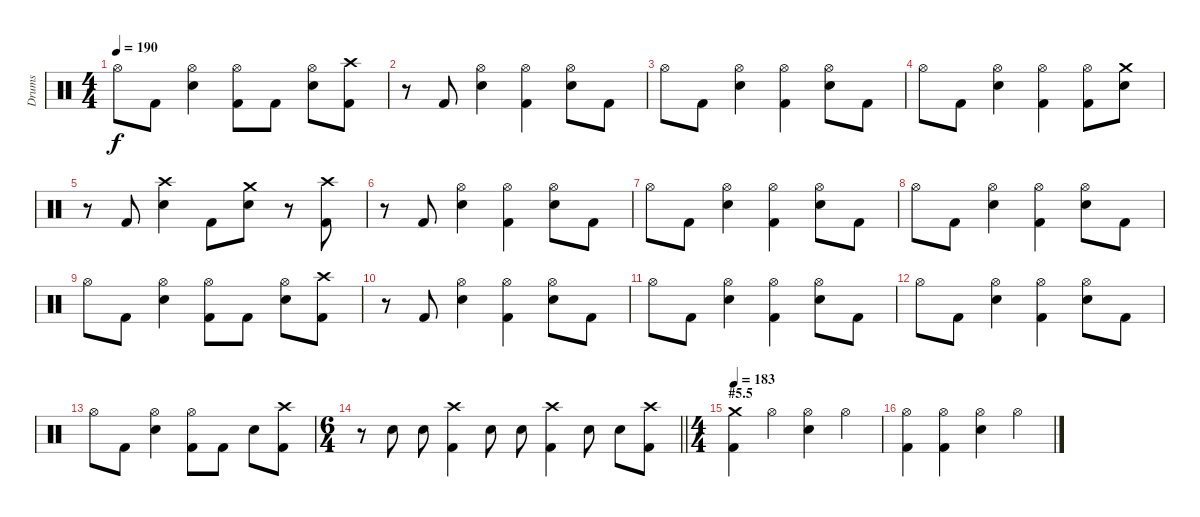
\track ("Drums" "Drums") {instrument percussion}
\staff {score}
\articulation defaults
\ts (4 4)
\tempo 190
\clef neutral
\ks c "Hi-Hat (open)".8{dy f} "Kick (hit) 2".8
("Hi-Hat (open)" "Electric Snare (hit)").4 ("Hi-Hat (open)" "Kick (hit) 2").8 "Kick (hit) 2".8 ("Hi-Hat (open)" "Electric Snare (hit)").8 ("Crash high (hit)" "Kick (hit) 2").8 |
r.8 "Kick (hit) 2".8 ("Hi-Hat (open)" "Electric Snare (hit)").4 ("Hi-Hat (open)" "Kick (hit) 2").4 ("Hi-Hat (open)" "Electric Snare (hit)").8 "Kick (hit) 2".8 |
"Hi-Hat (open)".8 "Kick (hit) 2".8 ("Hi-Hat (open)" "Electric Snare (hit)").4 ("Hi-Hat (open)" "Kick (hit) 2").4 ("Hi-Hat (open)" "Electric Snare (hit)").8 "Kick (hit) 2".8 |
"Hi-Hat (open)".8 "Kick (hit) 2".8 ("Hi-Hat (open)" "Electric Snare (hit)").4 ("Hi-Hat (open)" "Kick (hit) 2").4 ("Hi-Hat (open)" "Kick (hit) 2").8 ("Crash medium (hit)" "Electric Snare (hit)").8 |
r.8 "Kick (hit) 2".8 ("Crash high (hit)" "Electric Snare (hit)").4 "Kick (hit) 2".8 ("Crash medium (hit)" "Electric Snare (hit)").8 r.8 ("Crash high (hit)" "Kick (hit) 2").8 |
r.8 "Kick (hit) 2".8 ("Hi-Hat (open)" "Electric Snare (hit)").4 ("Hi-Hat (open)" "Kick (hit) 2").4 ("Hi-Hat (open)" "Electric Snare (hit)").8 "Kick (hit) 2".8 |
"Hi-Hat (open)".8 "Kick (hit) 2".8 ("Hi-Hat (open)" "Electric Snare (hit)").4 ("Hi-Hat (open)" "Kick (hit) 2").4 ("Hi-Hat (open)" "Electric Snare (hit)").8 "Kick (hit) 2".8 |
"Hi-Hat (open)".8 "Kick (hit) 2".8 ("Hi-Hat (open)" "Electric Snare (hit)").4 ("Hi-Hat (open)" "Kick (hit) 2").4 ("Hi-Hat (open)" "Electric Snare (hit)").8 "Kick (hit) 2".8 |
"Hi-Hat (open)".8 "Kick (hit) 2".8 ("Hi-Hat (open)" "Electric Snare (hit)").4 ("Hi-Hat (open)" "Kick (hit) 2").8 "Kick (hit) 2".8 ("Hi-Hat (open)" "Electric Snare (hit)").8 ("Crash high (hit)" "Kick (hit) 2").8 |
r.8 "Kick (hit) 2".8 ("Hi-Hat (open)" "Electric Snare (hit)").4 ("Hi-Hat (open)" "Kick (hit) 2").4 ("Hi-Hat (open)" "Electric Snare (hit)").8 "Kick (hit) 2".8 |
"Hi-Hat (open)".8 "Kick (hit) 2".8 ("Hi-Hat (open)" "Electric Snare (hit)").4 ("Hi-Hat (open)" "Kick (hit) 2").4 ("Hi-Hat (open)" "Electric Snare (hit)").8 "Kick (hit) 2".8 |
"Hi-Hat (open)".8 "Kick (hit) 2".8 ("Hi-Hat (open)" "Electric Snare (hit)").4 ("Hi-Hat (open)" "Kick (hit) 2").4 ("Hi-Hat (open)" "Electric Snare (hit)").8 "Kick (hit) 2".8 |
"Hi-Hat (open)".8 "Kick (hit) 2".8 ("Hi-Hat (open)" "Electric Snare (hit)").4 ("Hi-Hat (open)" "Kick (hit) 2").8 "Kick (hit) 2".8 "Electric Snare (hit)".8 ("Crash high (hit)" "Kick (hit) 2").8 |
\ts (6 4)
\barLineRight lightlight
r.8 "Electric Snare (hit)".8 "Electric Snare (hit)".8 ("Crash high (hit)" "Kick (hit) 2").4 "Electric Snare (hit)".8 "Electric Snare (hit)".8 ("Crash high (hit)" "Kick (hit) 2").4 "Snare (hit) 2".8 "Electric Snare (hit)".8 ("Crash high (hit)" "Kick (hit) 2").8 |
\ts (4 4)
\section ("" "#5.5")
\tempo 183
("Crash medium (hit)" "Kick (hit) 2").4 "Hi-Hat (open)".4 ("Hi-Hat (open)" "Electric Snare (hit)").4 "Hi-Hat (open)".4 |
("Hi-Hat (open)" "Kick (hit) 2").4 ("Hi-Hat (open)" "Kick (hit) 2").4 ("Hi-Hat (open)" "Electric Snare (hit)").4 "Hi-Hat (open)".4
